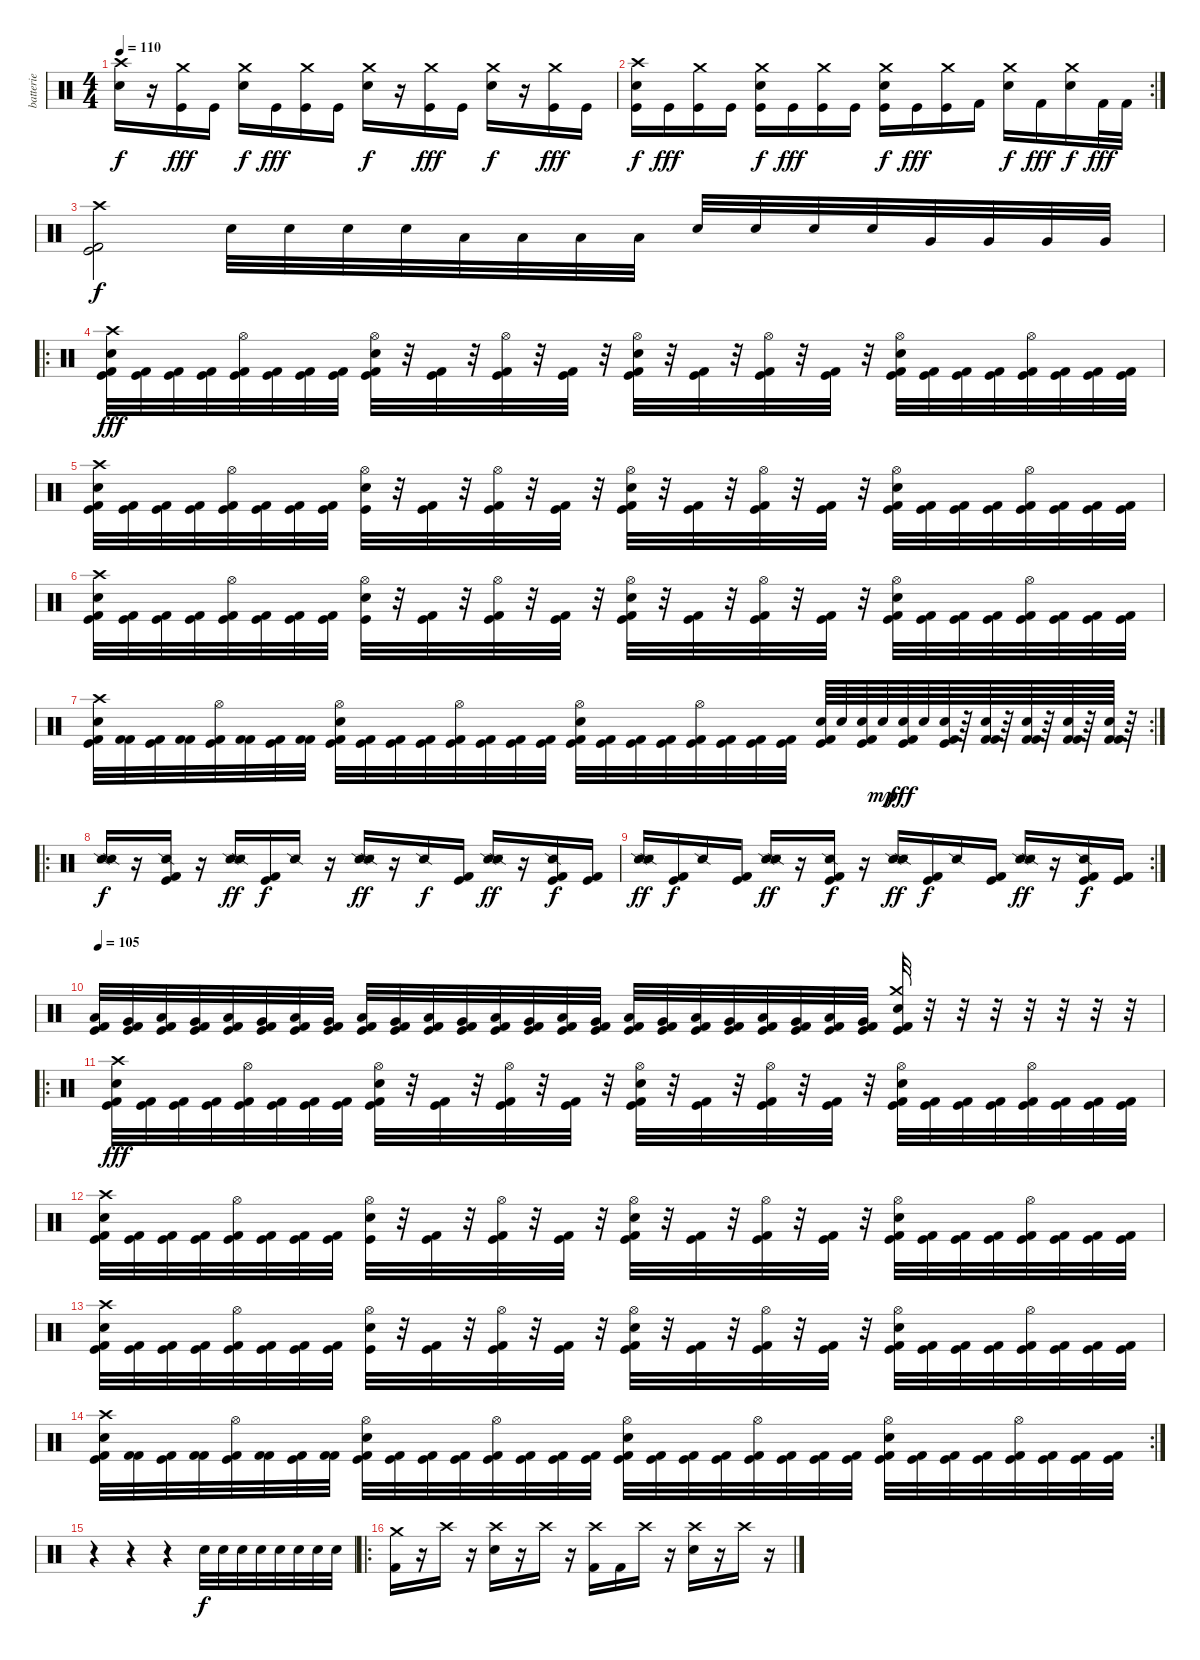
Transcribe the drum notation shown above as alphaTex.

\track ("batterie" "batterie") {instrument percussion}
\staff {score}
\articulation defaults
\ts (4 4)
\tempo 110
\clef neutral
\ks c
("Crash high (hit)" "Electric Snare (hit)").16{dy f} r.16 ("Crash medium (hit)" "Kick (hit)").16{dy fff} "Kick (hit)".16 ("Crash medium (hit)" "Electric Snare (hit)").16{dy f} "Kick (hit)".16{dy fff} ("Crash medium (hit)" "Kick (hit)").16 "Kick (hit)".16 ("Crash medium (hit)" "Electric Snare (hit)").16{dy f} r.16 ("Crash medium (hit)" "Kick (hit)").16{dy fff} "Kick (hit)".16 ("Crash medium (hit)" "Electric Snare (hit)").16{dy f} r.16 ("Crash medium (hit)" "Kick (hit)").16{dy fff} "Kick (hit)".16 |
\rc 2
("Crash high (hit)" "Electric Snare (hit)" "Kick (hit)").16{dy f} "Kick (hit)".16{dy fff} ("Crash medium (hit)" "Kick (hit)").16 "Kick (hit)".16 ("Crash medium (hit)" "Electric Snare (hit)" "Kick (hit)").16{dy f} "Kick (hit)".16{dy fff} ("Crash medium (hit)" "Kick (hit)").16 "Kick (hit)".16 ("Crash medium (hit)" "Electric Snare (hit)" "Kick (hit)").16{dy f} "Kick (hit)".16{dy fff} ("Crash medium (hit)" "Kick (hit)").16 "Kick (hit) 2".16 ("Crash medium (hit)" "Electric Snare (hit)").16{dy f} "Kick (hit) 2".16{dy fff} ("Crash medium (hit)" "Electric Snare (hit)").16{dy f} "Kick (hit) 2".32{dy fff} "Kick (hit) 2".32 |
("Crash high (hit)" "Kick (hit) 2" "Kick (hit)").2{dy f} "Electric Snare (hit)".32 "Electric Snare (hit)".32 "Electric Snare (hit)".32 "Electric Snare (hit)".32 "Low Tom (hit)".32 "Low Tom (hit)".32 "Low Tom (hit)".32 "Low Tom (hit)".32 "Electric Snare (hit)".32 "Electric Snare (hit)".32 "Electric Snare (hit)".32 "Electric Snare (hit)".32 "Very Low Tom (hit)".32 "Very Low Tom (hit)".32 "Very Low Tom (hit)".32 "Very Low Tom (hit)".32 |
\ro
("Crash high (hit)" "Electric Snare (hit)" "Kick (hit) 2" "Kick (hit)").32{dy fff} ("Kick (hit) 2" "Kick (hit)").32 ("Kick (hit) 2" "Kick (hit)").32 ("Kick (hit) 2" "Kick (hit)").32 ("Hi-Hat (open)" "Kick (hit) 2" "Kick (hit)").32 ("Kick (hit) 2" "Kick (hit)").32 ("Kick (hit) 2" "Kick (hit)").32 ("Kick (hit) 2" "Kick (hit)").32 ("Hi-Hat (open)" "Electric Snare (hit)" "Kick (hit) 2" "Kick (hit)").32 r.32 ("Kick (hit) 2" "Kick (hit)").32 r.32 ("Hi-Hat (open)" "Kick (hit) 2" "Kick (hit)").32 r.32 ("Kick (hit) 2" "Kick (hit)").32 r.32 ("Hi-Hat (open)" "Electric Snare (hit)" "Kick (hit) 2" "Kick (hit)").32 r.32 ("Kick (hit) 2" "Kick (hit)").32 r.32 ("Hi-Hat (open)" "Kick (hit) 2" "Kick (hit)").32 r.32 ("Kick (hit) 2" "Kick (hit)").32 r.32 ("Hi-Hat (open)" "Electric Snare (hit)" "Kick (hit) 2" "Kick (hit)").32 ("Kick (hit) 2" "Kick (hit)").32 ("Kick (hit) 2" "Kick (hit)").32 ("Kick (hit) 2" "Kick (hit)").32 ("Hi-Hat (open)" "Kick (hit) 2" "Kick (hit)").32 ("Kick (hit) 2" "Kick (hit)").32 ("Kick (hit) 2" "Kick (hit)").32 ("Kick (hit) 2" "Kick (hit)").32 |
("Crash high (hit)" "Electric Snare (hit)" "Kick (hit) 2" "Kick (hit)").32 ("Kick (hit) 2" "Kick (hit)").32 ("Kick (hit) 2" "Kick (hit)").32 ("Kick (hit) 2" "Kick (hit)").32 ("Hi-Hat (open)" "Kick (hit) 2" "Kick (hit)").32 ("Kick (hit) 2" "Kick (hit)").32 ("Kick (hit) 2" "Kick (hit)").32 ("Kick (hit) 2" "Kick (hit)").32 ("Hi-Hat (open)" "Electric Snare (hit)" "Kick (hit)").32 r.32 ("Kick (hit) 2" "Kick (hit)").32 r.32 ("Hi-Hat (open)" "Kick (hit) 2" "Kick (hit)").32 r.32 ("Kick (hit) 2" "Kick (hit)").32 r.32 ("Hi-Hat (open)" "Electric Snare (hit)" "Kick (hit) 2" "Kick (hit)").32 r.32 ("Kick (hit) 2" "Kick (hit)").32 r.32 ("Hi-Hat (open)" "Kick (hit) 2" "Kick (hit)").32 r.32 ("Kick (hit) 2" "Kick (hit)").32 r.32 ("Hi-Hat (open)" "Electric Snare (hit)" "Kick (hit) 2" "Kick (hit)").32 ("Kick (hit) 2" "Kick (hit)").32 ("Kick (hit) 2" "Kick (hit)").32 ("Kick (hit) 2" "Kick (hit)").32 ("Hi-Hat (open)" "Kick (hit) 2" "Kick (hit)").32 ("Kick (hit) 2" "Kick (hit)").32 ("Kick (hit) 2" "Kick (hit)").32 ("Kick (hit) 2" "Kick (hit)").32 |
("Crash high (hit)" "Electric Snare (hit)" "Kick (hit) 2" "Kick (hit)").32 ("Kick (hit) 2" "Kick (hit)").32 ("Kick (hit) 2" "Kick (hit)").32 ("Kick (hit) 2" "Kick (hit)").32 ("Hi-Hat (open)" "Kick (hit) 2" "Kick (hit)").32 ("Kick (hit) 2" "Kick (hit)").32 ("Kick (hit) 2" "Kick (hit)").32 ("Kick (hit) 2" "Kick (hit)").32 ("Hi-Hat (open)" "Electric Snare (hit)" "Kick (hit)").32 r.32 ("Kick (hit) 2" "Kick (hit)").32 r.32 ("Hi-Hat (open)" "Kick (hit) 2" "Kick (hit)").32 r.32 ("Kick (hit) 2" "Kick (hit)").32 r.32 ("Hi-Hat (open)" "Electric Snare (hit)" "Kick (hit) 2" "Kick (hit)").32 r.32 ("Kick (hit) 2" "Kick (hit)").32 r.32 ("Hi-Hat (open)" "Kick (hit) 2" "Kick (hit)").32 r.32 ("Kick (hit) 2" "Kick (hit)").32 r.32 ("Hi-Hat (open)" "Electric Snare (hit)" "Kick (hit) 2" "Kick (hit)").32 ("Kick (hit) 2" "Kick (hit)").32 ("Kick (hit) 2" "Kick (hit)").32 ("Kick (hit) 2" "Kick (hit)").32 ("Hi-Hat (open)" "Kick (hit) 2" "Kick (hit)").32 ("Kick (hit) 2" "Kick (hit)").32 ("Kick (hit) 2" "Kick (hit)").32 ("Kick (hit) 2" "Kick (hit)").32 |
\rc 2
("Crash high (hit)" "Electric Snare (hit)" "Kick (hit) 2" "Kick (hit)").32 ("Kick (hit) 2" "Kick (hit) 2").32 ("Kick (hit) 2" "Kick (hit)").32 ("Kick (hit) 2" "Kick (hit) 2").32 ("Hi-Hat (open)" "Kick (hit) 2" "Kick (hit)").32 ("Kick (hit) 2" "Kick (hit) 2").32 ("Kick (hit) 2" "Kick (hit)").32 ("Kick (hit) 2" "Kick (hit) 2").32 ("Hi-Hat (open)" "Electric Snare (hit)" "Kick (hit) 2" "Kick (hit)").32 ("Kick (hit) 2" "Kick (hit)").32 ("Kick (hit) 2" "Kick (hit)").32 ("Kick (hit) 2" "Kick (hit)").32 ("Hi-Hat (open)" "Kick (hit) 2" "Kick (hit)").32 ("Kick (hit) 2" "Kick (hit)").32 ("Kick (hit) 2" "Kick (hit)").32 ("Kick (hit) 2" "Kick (hit)").32 ("Hi-Hat (open)" "Electric Snare (hit)" "Kick (hit) 2" "Kick (hit)").32 ("Kick (hit) 2" "Kick (hit)").32 ("Kick (hit) 2" "Kick (hit)").32 ("Kick (hit) 2" "Kick (hit)").32 ("Hi-Hat (open)" "Kick (hit) 2" "Kick (hit)").32 ("Kick (hit) 2" "Kick (hit)").32 ("Kick (hit) 2" "Kick (hit)").32 ("Kick (hit) 2" "Kick (hit)").32 ("Electric Snare (hit)" "Kick (hit) 2" "Kick (hit)").64 "Electric Snare (hit)".64 ("Electric Snare (hit)" "Kick (hit) 2" "Kick (hit)").64 "Electric Snare (hit)".64{dy mp} ("Electric Snare (hit)" "Kick (hit) 2" "Kick (hit)").64{dy fff} "Electric Snare (hit)".64 ("Electric Snare (hit)" "Kick (hit) 2" "Kick (hit)").64 r.64 ("Electric Snare (hit)" "Kick (hit) 2" "Kick (hit) 2").64 r.64 ("Electric Snare (hit)" "Kick (hit) 2" "Kick (hit) 2").64 r.64 ("Electric Snare (hit)" "Kick (hit) 2" "Kick (hit) 2").64 r.64 ("Electric Snare (hit)" "Kick (hit) 2" "Kick (hit) 2").64 r.64 |
\ro
("Snare (side stick) 2" "Snare (side stick) 2").16{dy f} r.16 ("Snare (side stick) 2" "Kick (hit) 2" "Kick (hit)").16 r.16 ("Snare (side stick) 2" "Snare (side stick) 3" "Snare (side stick) 2").16{dy ff} ("Kick (hit) 2" "Kick (hit)").16{dy f} "Snare (side stick) 2".16 r.16 ("Snare (side stick) 2" "Snare (side stick) 3" "Snare (side stick) 2").16{dy ff} r.16 "Snare (side stick) 2".16{dy f} ("Kick (hit) 2" "Kick (hit)").16 ("Snare (side stick) 2" "Snare (side stick) 3" "Snare (side stick) 2").16{dy ff} r.16 ("Snare (side stick) 2" "Kick (hit) 2" "Kick (hit)").16{dy f} ("Kick (hit)" "Kick (hit) 2").16 |
\rc 2
("Snare (side stick) 2" "Snare (side stick) 3" "Snare (side stick) 2").16{dy ff} ("Kick (hit) 2" "Kick (hit)").16{dy f} "Snare (side stick) 2".16 ("Kick (hit) 2" "Kick (hit)").16 ("Snare (side stick) 2" "Snare (side stick) 3" "Snare (side stick) 2").16{dy ff} r.16 ("Snare (side stick) 2" "Kick (hit) 2" "Kick (hit)").16{dy f} r.16 ("Snare (side stick) 2" "Snare (side stick) 3" "Snare (side stick) 2").16{dy ff} ("Kick (hit)" "Kick (hit) 2").16{dy f} "Snare (side stick) 2".16 ("Kick (hit) 2" "Kick (hit)").16 ("Snare (side stick) 2" "Snare (side stick) 3" "Snare (side stick) 2").16{dy ff} r.16 ("Snare (side stick) 2" "Kick (hit) 2" "Kick (hit)").16{dy f} ("Kick (hit) 2" "Kick (hit)").16 |
\tempo 105
("Low Floor Tom (hit)" "Kick (hit)" "Kick (hit) 2").32 ("Very Low Tom (hit)" "Kick (hit)" "Kick (hit) 2").32 ("Low Floor Tom (hit)" "Kick (hit)" "Kick (hit) 2").32 ("Very Low Tom (hit)" "Kick (hit)" "Kick (hit) 2").32 ("Low Floor Tom (hit)" "Kick (hit)" "Kick (hit) 2").32 ("Very Low Tom (hit)" "Kick (hit)" "Kick (hit) 2").32 ("Low Floor Tom (hit)" "Kick (hit)" "Kick (hit) 2").32 ("Very Low Tom (hit)" "Kick (hit)" "Kick (hit) 2").32 ("Low Floor Tom (hit)" "Kick (hit)" "Kick (hit) 2").32 ("Very Low Tom (hit)" "Kick (hit)" "Kick (hit) 2").32 ("Low Floor Tom (hit)" "Kick (hit)" "Kick (hit) 2").32 ("Very Low Tom (hit)" "Kick (hit)" "Kick (hit) 2").32 ("Low Floor Tom (hit)" "Kick (hit)" "Kick (hit) 2").32 ("Very Low Tom (hit)" "Kick (hit)" "Kick (hit) 2").32 ("Low Floor Tom (hit)" "Kick (hit)" "Kick (hit) 2").32 ("Very Low Tom (hit)" "Kick (hit)" "Kick (hit) 2").32 ("Low Floor Tom (hit)" "Kick (hit)" "Kick (hit) 2").32 ("Very Low Tom (hit)" "Kick (hit)" "Kick (hit) 2").32 ("Low Floor Tom (hit)" "Kick (hit)" "Kick (hit) 2").32 ("Very Low Tom (hit)" "Kick (hit)" "Kick (hit) 2").32 ("Low Floor Tom (hit)" "Kick (hit)" "Kick (hit) 2").32 ("Very Low Tom (hit)" "Kick (hit)" "Kick (hit) 2").32 ("Low Floor Tom (hit)" "Kick (hit)" "Kick (hit) 2").32 ("Very Low Tom (hit)" "Kick (hit)" "Kick (hit) 2").32 ("Crash medium (hit)" "Electric Snare (hit)" "Kick (hit)" "Kick (hit) 2").32 r.32 r.32 r.32 r.32 r.32 r.32 r.32 |
\ro
("Crash high (hit)" "Electric Snare (hit)" "Kick (hit) 2" "Kick (hit)").32{dy fff} ("Kick (hit) 2" "Kick (hit)").32 ("Kick (hit) 2" "Kick (hit)").32 ("Kick (hit) 2" "Kick (hit)").32 ("Hi-Hat (open)" "Kick (hit) 2" "Kick (hit)").32 ("Kick (hit) 2" "Kick (hit)").32 ("Kick (hit) 2" "Kick (hit)").32 ("Kick (hit) 2" "Kick (hit)").32 ("Hi-Hat (open)" "Electric Snare (hit)" "Kick (hit) 2" "Kick (hit)").32 r.32 ("Kick (hit) 2" "Kick (hit)").32 r.32 ("Hi-Hat (open)" "Kick (hit) 2" "Kick (hit)").32 r.32 ("Kick (hit) 2" "Kick (hit)").32 r.32 ("Hi-Hat (open)" "Electric Snare (hit)" "Kick (hit) 2" "Kick (hit)").32 r.32 ("Kick (hit) 2" "Kick (hit)").32 r.32 ("Hi-Hat (open)" "Kick (hit) 2" "Kick (hit)").32 r.32 ("Kick (hit) 2" "Kick (hit)").32 r.32 ("Hi-Hat (open)" "Electric Snare (hit)" "Kick (hit) 2" "Kick (hit)").32 ("Kick (hit) 2" "Kick (hit)").32 ("Kick (hit) 2" "Kick (hit)").32 ("Kick (hit) 2" "Kick (hit)").32 ("Hi-Hat (open)" "Kick (hit) 2" "Kick (hit)").32 ("Kick (hit) 2" "Kick (hit)").32 ("Kick (hit) 2" "Kick (hit)").32 ("Kick (hit) 2" "Kick (hit)").32 |
("Crash high (hit)" "Electric Snare (hit)" "Kick (hit) 2" "Kick (hit)").32 ("Kick (hit) 2" "Kick (hit)").32 ("Kick (hit) 2" "Kick (hit)").32 ("Kick (hit) 2" "Kick (hit)").32 ("Hi-Hat (open)" "Kick (hit) 2" "Kick (hit)").32 ("Kick (hit) 2" "Kick (hit)").32 ("Kick (hit) 2" "Kick (hit)").32 ("Kick (hit) 2" "Kick (hit)").32 ("Hi-Hat (open)" "Electric Snare (hit)" "Kick (hit)").32 r.32 ("Kick (hit) 2" "Kick (hit)").32 r.32 ("Hi-Hat (open)" "Kick (hit) 2" "Kick (hit)").32 r.32 ("Kick (hit) 2" "Kick (hit)").32 r.32 ("Hi-Hat (open)" "Electric Snare (hit)" "Kick (hit) 2" "Kick (hit)").32 r.32 ("Kick (hit) 2" "Kick (hit)").32 r.32 ("Hi-Hat (open)" "Kick (hit) 2" "Kick (hit)").32 r.32 ("Kick (hit) 2" "Kick (hit)").32 r.32 ("Hi-Hat (open)" "Electric Snare (hit)" "Kick (hit) 2" "Kick (hit)").32 ("Kick (hit) 2" "Kick (hit)").32 ("Kick (hit) 2" "Kick (hit)").32 ("Kick (hit) 2" "Kick (hit)").32 ("Hi-Hat (open)" "Kick (hit) 2" "Kick (hit)").32 ("Kick (hit) 2" "Kick (hit)").32 ("Kick (hit) 2" "Kick (hit)").32 ("Kick (hit) 2" "Kick (hit)").32 |
("Crash high (hit)" "Electric Snare (hit)" "Kick (hit) 2" "Kick (hit)").32 ("Kick (hit) 2" "Kick (hit)").32 ("Kick (hit) 2" "Kick (hit)").32 ("Kick (hit) 2" "Kick (hit)").32 ("Hi-Hat (open)" "Kick (hit) 2" "Kick (hit)").32 ("Kick (hit) 2" "Kick (hit)").32 ("Kick (hit) 2" "Kick (hit)").32 ("Kick (hit) 2" "Kick (hit)").32 ("Hi-Hat (open)" "Electric Snare (hit)" "Kick (hit)").32 r.32 ("Kick (hit) 2" "Kick (hit)").32 r.32 ("Hi-Hat (open)" "Kick (hit) 2" "Kick (hit)").32 r.32 ("Kick (hit) 2" "Kick (hit)").32 r.32 ("Hi-Hat (open)" "Electric Snare (hit)" "Kick (hit) 2" "Kick (hit)").32 r.32 ("Kick (hit) 2" "Kick (hit)").32 r.32 ("Hi-Hat (open)" "Kick (hit) 2" "Kick (hit)").32 r.32 ("Kick (hit) 2" "Kick (hit)").32 r.32 ("Hi-Hat (open)" "Electric Snare (hit)" "Kick (hit) 2" "Kick (hit)").32 ("Kick (hit) 2" "Kick (hit)").32 ("Kick (hit) 2" "Kick (hit)").32 ("Kick (hit) 2" "Kick (hit)").32 ("Hi-Hat (open)" "Kick (hit) 2" "Kick (hit)").32 ("Kick (hit) 2" "Kick (hit)").32 ("Kick (hit) 2" "Kick (hit)").32 ("Kick (hit) 2" "Kick (hit)").32 |
\rc 2
("Crash high (hit)" "Electric Snare (hit)" "Kick (hit) 2" "Kick (hit)").32 ("Kick (hit) 2" "Kick (hit) 2").32 ("Kick (hit) 2" "Kick (hit)").32 ("Kick (hit) 2" "Kick (hit) 2").32 ("Hi-Hat (open)" "Kick (hit) 2" "Kick (hit)").32 ("Kick (hit) 2" "Kick (hit) 2").32 ("Kick (hit) 2" "Kick (hit)").32 ("Kick (hit) 2" "Kick (hit) 2").32 ("Hi-Hat (open)" "Electric Snare (hit)" "Kick (hit) 2" "Kick (hit)").32 ("Kick (hit) 2" "Kick (hit)").32 ("Kick (hit) 2" "Kick (hit)").32 ("Kick (hit) 2" "Kick (hit)").32 ("Hi-Hat (open)" "Kick (hit) 2" "Kick (hit)").32 ("Kick (hit) 2" "Kick (hit)").32 ("Kick (hit) 2" "Kick (hit)").32 ("Kick (hit) 2" "Kick (hit)").32 ("Hi-Hat (open)" "Electric Snare (hit)" "Kick (hit) 2" "Kick (hit)").32 ("Kick (hit) 2" "Kick (hit)").32 ("Kick (hit) 2" "Kick (hit)").32 ("Kick (hit) 2" "Kick (hit)").32 ("Hi-Hat (open)" "Kick (hit) 2" "Kick (hit)").32 ("Kick (hit) 2" "Kick (hit)").32 ("Kick (hit) 2" "Kick (hit)").32 ("Kick (hit) 2" "Kick (hit)").32 ("Hi-Hat (open)" "Electric Snare (hit)" "Kick (hit) 2" "Kick (hit)").32 ("Kick (hit) 2" "Kick (hit)").32 ("Kick (hit) 2" "Kick (hit)").32 ("Kick (hit) 2" "Kick (hit)").32 ("Hi-Hat (open)" "Kick (hit) 2" "Kick (hit)").32 ("Kick (hit) 2" "Kick (hit)").32 ("Kick (hit) 2" "Kick (hit)").32 ("Kick (hit) 2" "Kick (hit)").32 |
r.4 r.4 r.4 "Electric Snare (hit)".32{dy f} "Electric Snare (hit)".32 "Electric Snare (hit)".32 "Electric Snare (hit)".32 "Electric Snare (hit)".32 "Electric Snare (hit)".32 "Electric Snare (hit)".32 "Electric Snare (hit)".32 |
\ro
("Crash medium (hit)" "Kick (hit) 2").16 r.16 "Crash high (hit)".16 r.16 ("Crash high (hit)" "Electric Snare (hit)").16 r.16 "Crash high (hit)".16 r.16 ("Crash high (hit)" "Kick (hit) 2").16 "Kick (hit) 2".16 "Crash high (hit)".16 r.16 ("Crash high (hit)" "Electric Snare (hit)").16 r.16 "Crash high (hit)".16 r.16
